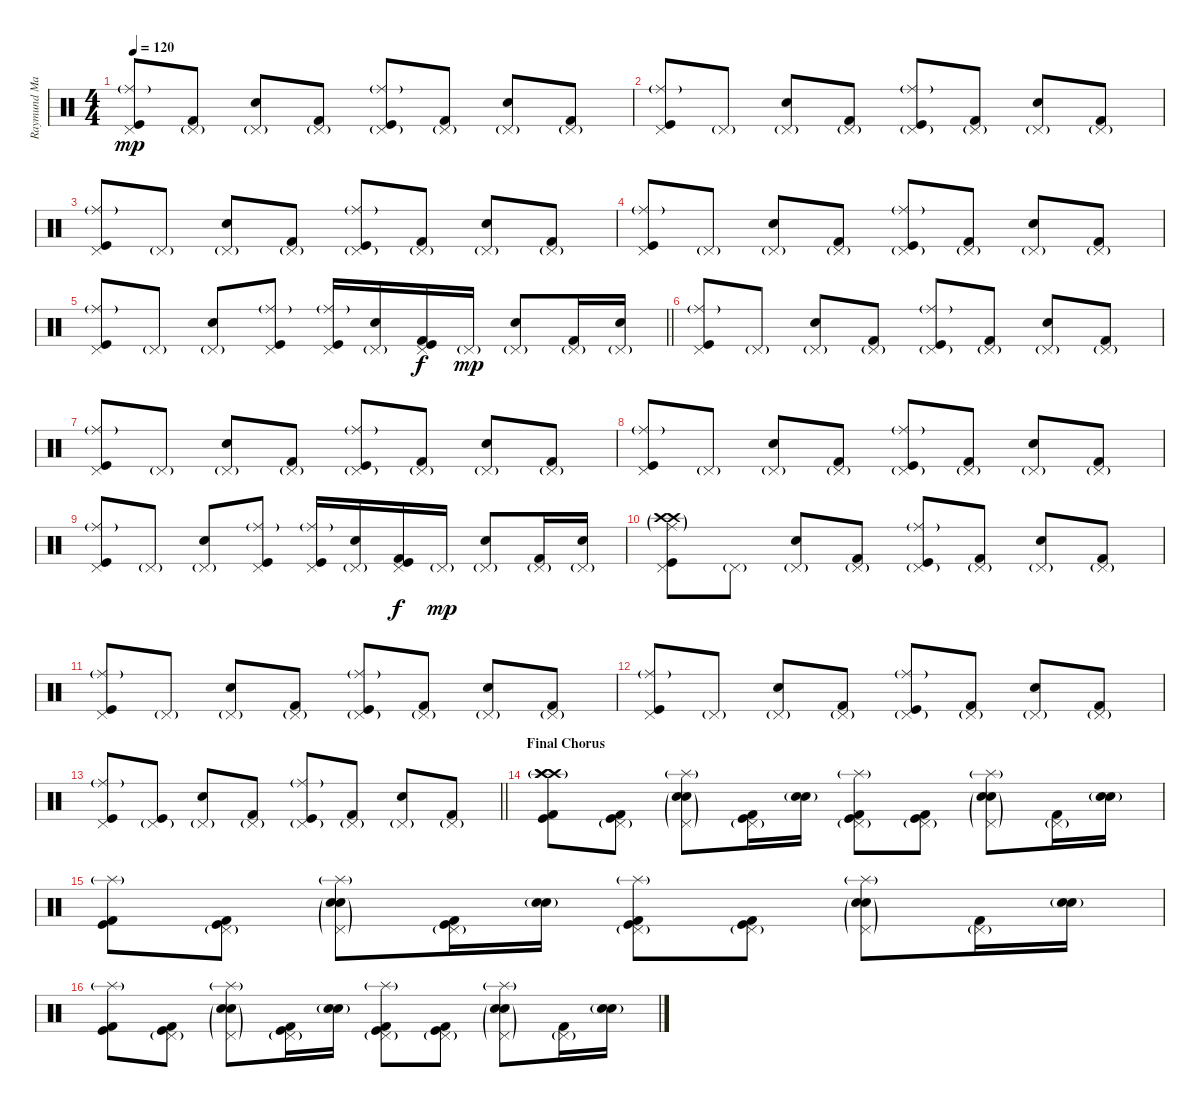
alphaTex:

\track ("Raymund Marasigan(Drums)" "Raymund Ma") {instrument percussion}
\staff {score}
\articulation defaults
\ts (4 4)
\tempo 120
\clef neutral
\ks c
("Pedal Hi-Hat (hit)" "Kick (hit)" "Ride (middle)"{g}).8{dy mp} ("Pedal Hi-Hat (hit)"{g} "Kick (hit) 2").8 ("Pedal Hi-Hat (hit)"{g} "Electric Snare (hit)").8 ("Pedal Hi-Hat (hit)"{g} "Kick (hit) 2").8 ("Pedal Hi-Hat (hit)"{g} "Kick (hit)" "Ride (middle)"{g}).8 ("Pedal Hi-Hat (hit)"{g} "Kick (hit) 2").8 ("Pedal Hi-Hat (hit)"{g} "Electric Snare (hit)").8 ("Pedal Hi-Hat (hit)"{g} "Kick (hit) 2").8 |
("Pedal Hi-Hat (hit)" "Kick (hit)" "Ride (middle)"{g}).8 "Pedal Hi-Hat (hit)"{g}.8 ("Pedal Hi-Hat (hit)"{g} "Electric Snare (hit)").8 ("Pedal Hi-Hat (hit)"{g} "Kick (hit) 2").8 ("Pedal Hi-Hat (hit)"{g} "Kick (hit)" "Ride (middle)"{g}).8 ("Pedal Hi-Hat (hit)"{g} "Kick (hit) 2").8 ("Pedal Hi-Hat (hit)"{g} "Electric Snare (hit)").8 ("Pedal Hi-Hat (hit)"{g} "Kick (hit) 2").8 |
("Pedal Hi-Hat (hit)" "Kick (hit)" "Ride (middle)"{g}).8 "Pedal Hi-Hat (hit)"{g}.8 ("Pedal Hi-Hat (hit)"{g} "Electric Snare (hit)").8 ("Pedal Hi-Hat (hit)"{g} "Kick (hit) 2").8 ("Pedal Hi-Hat (hit)"{g} "Kick (hit)" "Ride (middle)"{g}).8 ("Pedal Hi-Hat (hit)"{g} "Kick (hit) 2").8 ("Pedal Hi-Hat (hit)"{g} "Electric Snare (hit)").8 ("Pedal Hi-Hat (hit)"{g} "Kick (hit) 2").8 |
("Pedal Hi-Hat (hit)" "Kick (hit)" "Ride (middle)"{g}).8 "Pedal Hi-Hat (hit)"{g}.8 ("Pedal Hi-Hat (hit)"{g} "Electric Snare (hit)").8 ("Pedal Hi-Hat (hit)"{g} "Kick (hit) 2").8 ("Pedal Hi-Hat (hit)"{g} "Kick (hit)" "Ride (middle)"{g}).8 ("Pedal Hi-Hat (hit)"{g} "Kick (hit) 2").8 ("Pedal Hi-Hat (hit)"{g} "Electric Snare (hit)").8 ("Pedal Hi-Hat (hit)"{g} "Kick (hit) 2").8 |
\barLineRight lightlight
("Pedal Hi-Hat (hit)" "Kick (hit)" "Ride (middle)"{g}).8 "Pedal Hi-Hat (hit)"{g}.8 ("Pedal Hi-Hat (hit)"{g} "Electric Snare (hit)").8 ("Pedal Hi-Hat (hit)" "Kick (hit)" "Ride (middle)"{g}).8 ("Pedal Hi-Hat (hit)" "Kick (hit)" "Ride (middle)"{g}).16 ("Pedal Hi-Hat (hit)"{g} "Electric Snare (hit)").16 ("Pedal Hi-Hat (hit)" "Kick (hit) 2" "Kick (hit)").16{dy f} "Pedal Hi-Hat (hit)"{g}.16{dy mp} ("Pedal Hi-Hat (hit)"{g} "Electric Snare (hit)").8 ("Pedal Hi-Hat (hit)"{g} "Kick (hit) 2").16 ("Pedal Hi-Hat (hit)"{g} "Electric Snare (hit)").16 |
\section ("" "")
("Pedal Hi-Hat (hit)" "Kick (hit)" "Ride (middle)"{g}).8 "Pedal Hi-Hat (hit)"{g}.8 ("Pedal Hi-Hat (hit)"{g} "Electric Snare (hit)").8 ("Pedal Hi-Hat (hit)"{g} "Kick (hit) 2").8 ("Pedal Hi-Hat (hit)"{g} "Kick (hit)" "Ride (middle)"{g}).8 ("Pedal Hi-Hat (hit)"{g} "Kick (hit) 2").8 ("Pedal Hi-Hat (hit)"{g} "Electric Snare (hit)").8 ("Pedal Hi-Hat (hit)"{g} "Kick (hit) 2").8 |
("Pedal Hi-Hat (hit)" "Kick (hit)" "Ride (middle)"{g}).8 "Pedal Hi-Hat (hit)"{g}.8 ("Pedal Hi-Hat (hit)"{g} "Electric Snare (hit)").8 ("Pedal Hi-Hat (hit)"{g} "Kick (hit) 2").8 ("Pedal Hi-Hat (hit)"{g} "Kick (hit)" "Ride (middle)"{g}).8 ("Pedal Hi-Hat (hit)"{g} "Kick (hit) 2").8 ("Pedal Hi-Hat (hit)"{g} "Electric Snare (hit)").8 ("Pedal Hi-Hat (hit)"{g} "Kick (hit) 2").8 |
("Pedal Hi-Hat (hit)" "Kick (hit)" "Ride (middle)"{g}).8 "Pedal Hi-Hat (hit)"{g}.8 ("Pedal Hi-Hat (hit)"{g} "Electric Snare (hit)").8 ("Pedal Hi-Hat (hit)"{g} "Kick (hit) 2").8 ("Pedal Hi-Hat (hit)"{g} "Kick (hit)" "Ride (middle)"{g}).8 ("Pedal Hi-Hat (hit)"{g} "Kick (hit) 2").8 ("Pedal Hi-Hat (hit)"{g} "Electric Snare (hit)").8 ("Pedal Hi-Hat (hit)"{g} "Kick (hit) 2").8 |
("Pedal Hi-Hat (hit)" "Kick (hit)" "Ride (middle)"{g}).8 "Pedal Hi-Hat (hit)"{g}.8 ("Pedal Hi-Hat (hit)"{g} "Electric Snare (hit)").8 ("Pedal Hi-Hat (hit)" "Kick (hit)" "Ride (middle)"{g}).8 ("Pedal Hi-Hat (hit)" "Kick (hit)" "Ride (middle)"{g}).16 ("Pedal Hi-Hat (hit)"{g} "Electric Snare (hit)").16 ("Pedal Hi-Hat (hit)" "Kick (hit) 2" "Kick (hit)").16{dy f} "Pedal Hi-Hat (hit)"{g}.16{dy mp} ("Pedal Hi-Hat (hit)"{g} "Electric Snare (hit)").8 ("Pedal Hi-Hat (hit)"{g} "Kick (hit) 2").16 ("Pedal Hi-Hat (hit)"{g} "Electric Snare (hit)").16 |
("Pedal Hi-Hat (hit)" "Kick (hit)" "Ride (middle)"{g} "Crash high (hit)"{g} "Crash high (hit)"{g}).8 "Pedal Hi-Hat (hit)"{g}.8 ("Pedal Hi-Hat (hit)"{g} "Electric Snare (hit)").8 ("Pedal Hi-Hat (hit)"{g} "Kick (hit) 2").8 ("Pedal Hi-Hat (hit)"{g} "Kick (hit)" "Ride (middle)"{g}).8 ("Pedal Hi-Hat (hit)"{g} "Kick (hit) 2").8 ("Pedal Hi-Hat (hit)"{g} "Electric Snare (hit)").8 ("Pedal Hi-Hat (hit)"{g} "Kick (hit) 2").8 |
("Pedal Hi-Hat (hit)" "Kick (hit)" "Ride (middle)"{g}).8 "Pedal Hi-Hat (hit)"{g}.8 ("Pedal Hi-Hat (hit)"{g} "Electric Snare (hit)").8 ("Pedal Hi-Hat (hit)"{g} "Kick (hit) 2").8 ("Pedal Hi-Hat (hit)"{g} "Kick (hit)" "Ride (middle)"{g}).8 ("Pedal Hi-Hat (hit)"{g} "Kick (hit) 2").8 ("Pedal Hi-Hat (hit)"{g} "Electric Snare (hit)").8 ("Pedal Hi-Hat (hit)"{g} "Kick (hit) 2").8 |
("Pedal Hi-Hat (hit)" "Kick (hit)" "Ride (middle)"{g}).8 "Pedal Hi-Hat (hit)"{g}.8 ("Pedal Hi-Hat (hit)"{g} "Electric Snare (hit)").8 ("Pedal Hi-Hat (hit)"{g} "Kick (hit) 2").8 ("Pedal Hi-Hat (hit)"{g} "Kick (hit)" "Ride (middle)"{g}).8 ("Pedal Hi-Hat (hit)"{g} "Kick (hit) 2").8 ("Pedal Hi-Hat (hit)"{g} "Electric Snare (hit)").8 ("Pedal Hi-Hat (hit)"{g} "Kick (hit) 2").8 |
\barLineRight lightlight
("Pedal Hi-Hat (hit)" "Kick (hit)" "Ride (middle)"{g}).8 ("Pedal Hi-Hat (hit)"{g} "Kick (hit)").8 ("Pedal Hi-Hat (hit)"{g} "Electric Snare (hit)").8 ("Pedal Hi-Hat (hit)"{g} "Kick (hit) 2").8 ("Pedal Hi-Hat (hit)"{g} "Kick (hit)" "Ride (middle)"{g}).8 ("Pedal Hi-Hat (hit)"{g} "Kick (hit) 2").8 ("Pedal Hi-Hat (hit)"{g} "Electric Snare (hit)").8 ("Pedal Hi-Hat (hit)"{g} "Kick (hit) 2").8 |
\section ("" "Final Chorus")
("Crash high (hit)"{g} "Crash high (hit)"{g} "Crash high (hit)"{g} "Kick (hit) 2" "Kick (hit)").8 ("Pedal Hi-Hat (hit)"{g} "Kick (hit) 2" "Kick (hit)").8 ("Pedal Hi-Hat (hit)"{g} "Electric Snare (hit)" "Snare (hit) 2"{g} "Splash (hit)"{g}).8 ("Pedal Hi-Hat (hit)"{g} "Kick (hit) 2" "Kick (hit)").16 ("Electric Snare (hit)" "Snare (hit) 2"{g}).16 ("Pedal Hi-Hat (hit)"{g} "Kick (hit) 2" "Kick (hit)" "Splash (hit)"{g}).8 ("Pedal Hi-Hat (hit)"{g} "Kick (hit) 2" "Kick (hit)").8 ("Pedal Hi-Hat (hit)"{g} "Electric Snare (hit)" "Snare (hit) 2"{g} "Splash (hit)"{g}).8 ("Pedal Hi-Hat (hit)"{g} "Kick (hit) 2").16 ("Electric Snare (hit)" "Snare (hit) 2"{g}).16 |
("Kick (hit) 2" "Kick (hit)" "Splash (hit)"{g}).8 ("Pedal Hi-Hat (hit)"{g} "Kick (hit) 2" "Kick (hit)").8 ("Pedal Hi-Hat (hit)"{g} "Electric Snare (hit)" "Snare (hit) 2"{g} "Splash (hit)"{g}).8 ("Pedal Hi-Hat (hit)"{g} "Kick (hit) 2" "Kick (hit)").16 ("Electric Snare (hit)" "Snare (hit) 2"{g}).16 ("Pedal Hi-Hat (hit)"{g} "Kick (hit) 2" "Kick (hit)" "Splash (hit)"{g}).8 ("Pedal Hi-Hat (hit)"{g} "Kick (hit) 2" "Kick (hit)").8 ("Pedal Hi-Hat (hit)"{g} "Electric Snare (hit)" "Snare (hit) 2"{g} "Splash (hit)"{g}).8 ("Pedal Hi-Hat (hit)"{g} "Kick (hit) 2").16 ("Electric Snare (hit)" "Snare (hit) 2"{g}).16 |
("Kick (hit) 2" "Kick (hit)" "Splash (hit)"{g}).8 ("Pedal Hi-Hat (hit)"{g} "Kick (hit) 2" "Kick (hit)").8 ("Pedal Hi-Hat (hit)"{g} "Electric Snare (hit)" "Snare (hit) 2"{g} "Splash (hit)"{g}).8 ("Pedal Hi-Hat (hit)"{g} "Kick (hit) 2" "Kick (hit)").16 ("Electric Snare (hit)" "Snare (hit) 2"{g}).16 ("Pedal Hi-Hat (hit)"{g} "Kick (hit) 2" "Kick (hit)" "Splash (hit)"{g}).8 ("Pedal Hi-Hat (hit)"{g} "Kick (hit) 2" "Kick (hit)").8 ("Pedal Hi-Hat (hit)"{g} "Electric Snare (hit)" "Snare (hit) 2"{g} "Splash (hit)"{g}).8 ("Pedal Hi-Hat (hit)"{g} "Kick (hit) 2").16 ("Electric Snare (hit)" "Snare (hit) 2"{g}).16
